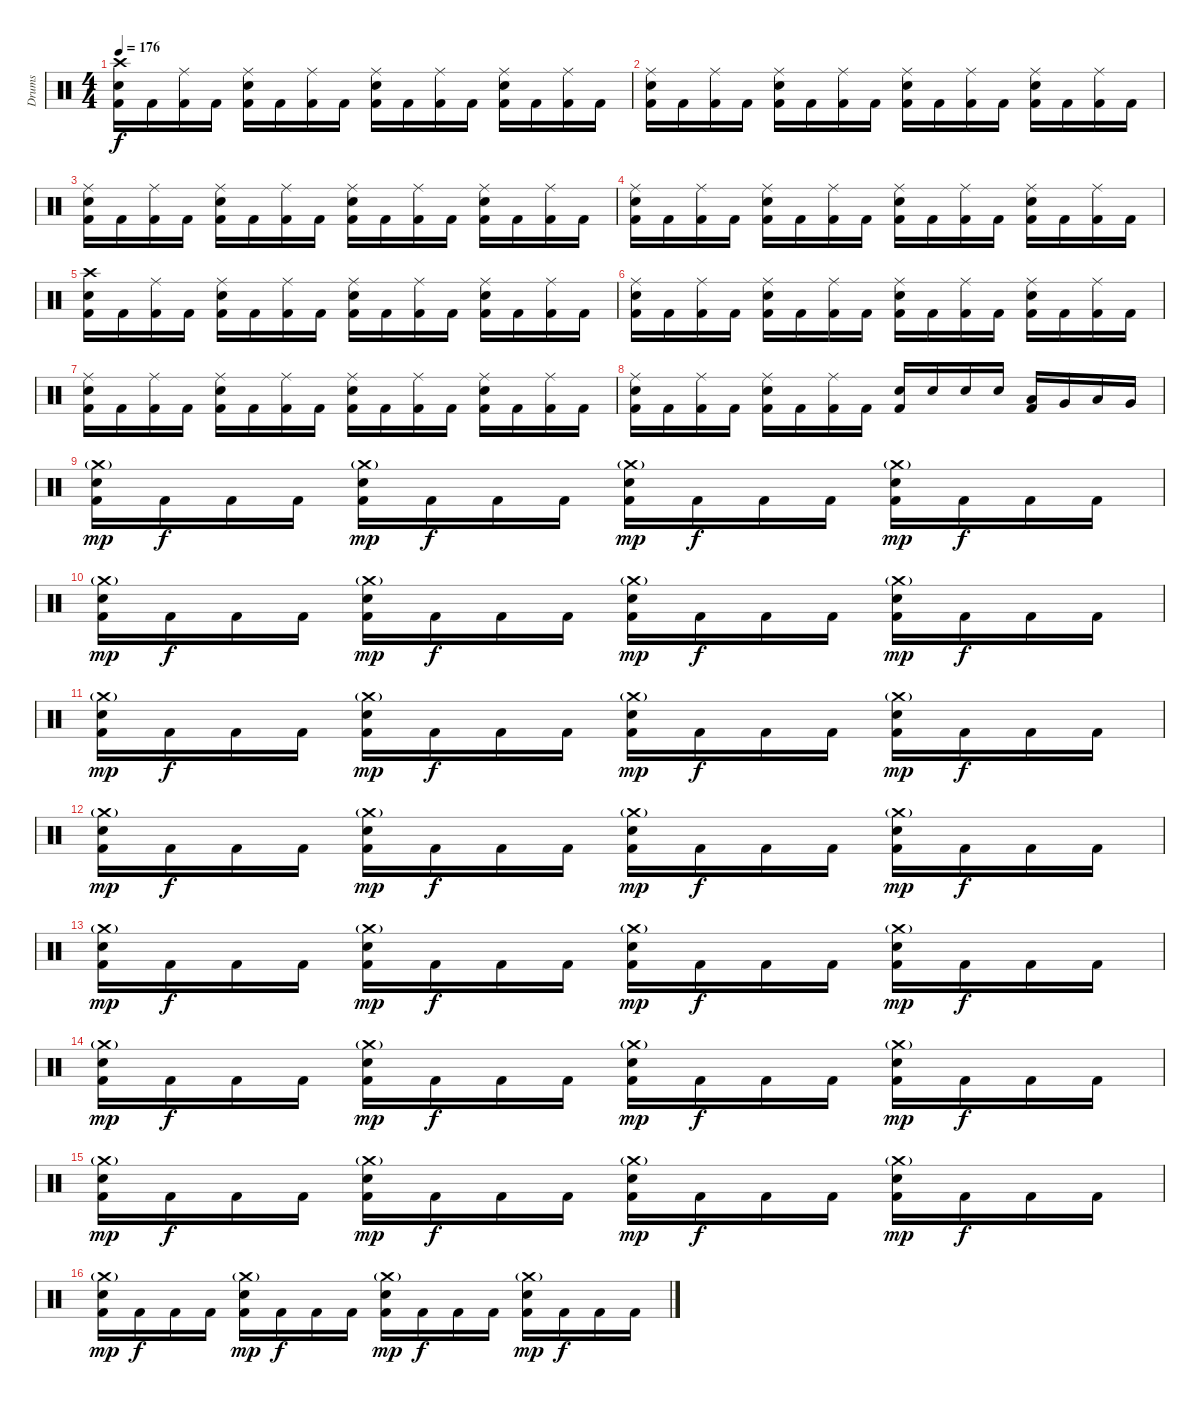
\track ("Drums" "Drums") {instrument percussion}
\staff {score}
\articulation defaults
\ts (4 4)
\tempo 176
\clef neutral
\ks c
("Crash high (hit)" "Electric Snare (hit)" "Kick (hit) 2").16{dy f} "Kick (hit) 2".16 ("Ride (middle)" "Kick (hit) 2").16 "Kick (hit) 2".16 ("Ride (middle)" "Electric Snare (hit)" "Kick (hit) 2").16 "Kick (hit) 2".16 ("Ride (middle)" "Kick (hit) 2").16 "Kick (hit) 2".16 ("Ride (middle)" "Electric Snare (hit)" "Kick (hit) 2").16 "Kick (hit) 2".16 ("Ride (middle)" "Kick (hit) 2").16 "Kick (hit) 2".16 ("Ride (middle)" "Electric Snare (hit)" "Kick (hit) 2").16 "Kick (hit) 2".16 ("Ride (middle)" "Kick (hit) 2").16 "Kick (hit) 2".16 |
("Ride (middle)" "Electric Snare (hit)" "Kick (hit) 2").16 "Kick (hit) 2".16 ("Ride (middle)" "Kick (hit) 2").16 "Kick (hit) 2".16 ("Ride (middle)" "Electric Snare (hit)" "Kick (hit) 2").16 "Kick (hit) 2".16 ("Ride (middle)" "Kick (hit) 2").16 "Kick (hit) 2".16 ("Ride (middle)" "Electric Snare (hit)" "Kick (hit) 2").16 "Kick (hit) 2".16 ("Ride (middle)" "Kick (hit) 2").16 "Kick (hit) 2".16 ("Ride (middle)" "Electric Snare (hit)" "Kick (hit) 2").16 "Kick (hit) 2".16 ("Ride (middle)" "Kick (hit) 2").16 "Kick (hit) 2".16 |
("Ride (middle)" "Electric Snare (hit)" "Kick (hit) 2").16 "Kick (hit) 2".16 ("Ride (middle)" "Kick (hit) 2").16 "Kick (hit) 2".16 ("Ride (middle)" "Electric Snare (hit)" "Kick (hit) 2").16 "Kick (hit) 2".16 ("Ride (middle)" "Kick (hit) 2").16 "Kick (hit) 2".16 ("Ride (middle)" "Electric Snare (hit)" "Kick (hit) 2").16 "Kick (hit) 2".16 ("Ride (middle)" "Kick (hit) 2").16 "Kick (hit) 2".16 ("Ride (middle)" "Electric Snare (hit)" "Kick (hit) 2").16 "Kick (hit) 2".16 ("Ride (middle)" "Kick (hit) 2").16 "Kick (hit) 2".16 |
("Ride (middle)" "Electric Snare (hit)" "Kick (hit) 2").16 "Kick (hit) 2".16 ("Ride (middle)" "Kick (hit) 2").16 "Kick (hit) 2".16 ("Ride (middle)" "Electric Snare (hit)" "Kick (hit) 2").16 "Kick (hit) 2".16 ("Ride (middle)" "Kick (hit) 2").16 "Kick (hit) 2".16 ("Ride (middle)" "Electric Snare (hit)" "Kick (hit) 2").16 "Kick (hit) 2".16 ("Ride (middle)" "Kick (hit) 2").16 "Kick (hit) 2".16 ("Ride (middle)" "Electric Snare (hit)" "Kick (hit) 2").16 "Kick (hit) 2".16 ("Ride (middle)" "Kick (hit) 2").16 "Kick (hit) 2".16 |
("Crash high (hit)" "Electric Snare (hit)" "Kick (hit) 2").16 "Kick (hit) 2".16 ("Ride (middle)" "Kick (hit) 2").16 "Kick (hit) 2".16 ("Ride (middle)" "Electric Snare (hit)" "Kick (hit) 2").16 "Kick (hit) 2".16 ("Ride (middle)" "Kick (hit) 2").16 "Kick (hit) 2".16 ("Ride (middle)" "Electric Snare (hit)" "Kick (hit) 2").16 "Kick (hit) 2".16 ("Ride (middle)" "Kick (hit) 2").16 "Kick (hit) 2".16 ("Ride (middle)" "Electric Snare (hit)" "Kick (hit) 2").16 "Kick (hit) 2".16 ("Ride (middle)" "Kick (hit) 2").16 "Kick (hit) 2".16 |
("Ride (middle)" "Electric Snare (hit)" "Kick (hit) 2").16 "Kick (hit) 2".16 ("Ride (middle)" "Kick (hit) 2").16 "Kick (hit) 2".16 ("Ride (middle)" "Electric Snare (hit)" "Kick (hit) 2").16 "Kick (hit) 2".16 ("Ride (middle)" "Kick (hit) 2").16 "Kick (hit) 2".16 ("Ride (middle)" "Electric Snare (hit)" "Kick (hit) 2").16 "Kick (hit) 2".16 ("Ride (middle)" "Kick (hit) 2").16 "Kick (hit) 2".16 ("Ride (middle)" "Electric Snare (hit)" "Kick (hit) 2").16 "Kick (hit) 2".16 ("Ride (middle)" "Kick (hit) 2").16 "Kick (hit) 2".16 |
("Ride (middle)" "Electric Snare (hit)" "Kick (hit) 2").16 "Kick (hit) 2".16 ("Ride (middle)" "Kick (hit) 2").16 "Kick (hit) 2".16 ("Ride (middle)" "Electric Snare (hit)" "Kick (hit) 2").16 "Kick (hit) 2".16 ("Ride (middle)" "Kick (hit) 2").16 "Kick (hit) 2".16 ("Ride (middle)" "Electric Snare (hit)" "Kick (hit) 2").16 "Kick (hit) 2".16 ("Ride (middle)" "Kick (hit) 2").16 "Kick (hit) 2".16 ("Ride (middle)" "Electric Snare (hit)" "Kick (hit) 2").16 "Kick (hit) 2".16 ("Ride (middle)" "Kick (hit) 2").16 "Kick (hit) 2".16 |
("Ride (middle)" "Electric Snare (hit)" "Kick (hit) 2").16 "Kick (hit) 2".16 ("Ride (middle)" "Kick (hit) 2").16 "Kick (hit) 2".16 ("Ride (middle)" "Electric Snare (hit)" "Kick (hit) 2").16 "Kick (hit) 2".16 ("Ride (middle)" "Kick (hit) 2").16 "Kick (hit) 2".16 ("Electric Snare (hit)" "Kick (hit) 2").16 "Electric Snare (hit)".16 "Electric Snare (hit)".16 "Electric Snare (hit)".16 ("Low Tom (hit)" "Kick (hit) 2").16 "Very Low Tom (hit)".16 "Low Tom (hit)".16 "Very Low Tom (hit)".16 |
("Crash medium (hit)"{g} "Electric Snare (hit)" "Kick (hit) 2").16{dy mp} "Kick (hit) 2".16{dy f} "Kick (hit) 2".16 "Kick (hit) 2".16 ("Crash medium (hit)"{g} "Electric Snare (hit)" "Kick (hit) 2").16{dy mp} "Kick (hit) 2".16{dy f} "Kick (hit) 2".16 "Kick (hit) 2".16 ("Crash medium (hit)"{g} "Electric Snare (hit)" "Kick (hit) 2").16{dy mp} "Kick (hit) 2".16{dy f} "Kick (hit) 2".16 "Kick (hit) 2".16 ("Crash medium (hit)"{g} "Electric Snare (hit)" "Kick (hit) 2").16{dy mp} "Kick (hit) 2".16{dy f} "Kick (hit) 2".16 "Kick (hit) 2".16 |
("Crash medium (hit)"{g} "Electric Snare (hit)" "Kick (hit) 2").16{dy mp} "Kick (hit) 2".16{dy f} "Kick (hit) 2".16 "Kick (hit) 2".16 ("Crash medium (hit)"{g} "Electric Snare (hit)" "Kick (hit) 2").16{dy mp} "Kick (hit) 2".16{dy f} "Kick (hit) 2".16 "Kick (hit) 2".16 ("Crash medium (hit)"{g} "Electric Snare (hit)" "Kick (hit) 2").16{dy mp} "Kick (hit) 2".16{dy f} "Kick (hit) 2".16 "Kick (hit) 2".16 ("Crash medium (hit)"{g} "Electric Snare (hit)" "Kick (hit) 2").16{dy mp} "Kick (hit) 2".16{dy f} "Kick (hit) 2".16 "Kick (hit) 2".16 |
("Crash medium (hit)"{g} "Electric Snare (hit)" "Kick (hit) 2").16{dy mp} "Kick (hit) 2".16{dy f} "Kick (hit) 2".16 "Kick (hit) 2".16 ("Crash medium (hit)"{g} "Electric Snare (hit)" "Kick (hit) 2").16{dy mp} "Kick (hit) 2".16{dy f} "Kick (hit) 2".16 "Kick (hit) 2".16 ("Crash medium (hit)"{g} "Electric Snare (hit)" "Kick (hit) 2").16{dy mp} "Kick (hit) 2".16{dy f} "Kick (hit) 2".16 "Kick (hit) 2".16 ("Crash medium (hit)"{g} "Electric Snare (hit)" "Kick (hit) 2").16{dy mp} "Kick (hit) 2".16{dy f} "Kick (hit) 2".16 "Kick (hit) 2".16 |
("Crash medium (hit)"{g} "Electric Snare (hit)" "Kick (hit) 2").16{dy mp} "Kick (hit) 2".16{dy f} "Kick (hit) 2".16 "Kick (hit) 2".16 ("Crash medium (hit)"{g} "Electric Snare (hit)" "Kick (hit) 2").16{dy mp} "Kick (hit) 2".16{dy f} "Kick (hit) 2".16 "Kick (hit) 2".16 ("Crash medium (hit)"{g} "Electric Snare (hit)" "Kick (hit) 2").16{dy mp} "Kick (hit) 2".16{dy f} "Kick (hit) 2".16 "Kick (hit) 2".16 ("Crash medium (hit)"{g} "Electric Snare (hit)" "Kick (hit) 2").16{dy mp} "Kick (hit) 2".16{dy f} "Kick (hit) 2".16 "Kick (hit) 2".16 |
("Crash medium (hit)"{g} "Electric Snare (hit)" "Kick (hit) 2").16{dy mp} "Kick (hit) 2".16{dy f} "Kick (hit) 2".16 "Kick (hit) 2".16 ("Crash medium (hit)"{g} "Electric Snare (hit)" "Kick (hit) 2").16{dy mp} "Kick (hit) 2".16{dy f} "Kick (hit) 2".16 "Kick (hit) 2".16 ("Crash medium (hit)"{g} "Electric Snare (hit)" "Kick (hit) 2").16{dy mp} "Kick (hit) 2".16{dy f} "Kick (hit) 2".16 "Kick (hit) 2".16 ("Crash medium (hit)"{g} "Electric Snare (hit)" "Kick (hit) 2").16{dy mp} "Kick (hit) 2".16{dy f} "Kick (hit) 2".16 "Kick (hit) 2".16 |
("Crash medium (hit)"{g} "Electric Snare (hit)" "Kick (hit) 2").16{dy mp} "Kick (hit) 2".16{dy f} "Kick (hit) 2".16 "Kick (hit) 2".16 ("Crash medium (hit)"{g} "Electric Snare (hit)" "Kick (hit) 2").16{dy mp} "Kick (hit) 2".16{dy f} "Kick (hit) 2".16 "Kick (hit) 2".16 ("Crash medium (hit)"{g} "Electric Snare (hit)" "Kick (hit) 2").16{dy mp} "Kick (hit) 2".16{dy f} "Kick (hit) 2".16 "Kick (hit) 2".16 ("Crash medium (hit)"{g} "Electric Snare (hit)" "Kick (hit) 2").16{dy mp} "Kick (hit) 2".16{dy f} "Kick (hit) 2".16 "Kick (hit) 2".16 |
("Crash medium (hit)"{g} "Electric Snare (hit)" "Kick (hit) 2").16{dy mp} "Kick (hit) 2".16{dy f} "Kick (hit) 2".16 "Kick (hit) 2".16 ("Crash medium (hit)"{g} "Electric Snare (hit)" "Kick (hit) 2").16{dy mp} "Kick (hit) 2".16{dy f} "Kick (hit) 2".16 "Kick (hit) 2".16 ("Crash medium (hit)"{g} "Electric Snare (hit)" "Kick (hit) 2").16{dy mp} "Kick (hit) 2".16{dy f} "Kick (hit) 2".16 "Kick (hit) 2".16 ("Crash medium (hit)"{g} "Electric Snare (hit)" "Kick (hit) 2").16{dy mp} "Kick (hit) 2".16{dy f} "Kick (hit) 2".16 "Kick (hit) 2".16 |
("Crash medium (hit)"{g} "Electric Snare (hit)" "Kick (hit) 2").16{dy mp} "Kick (hit) 2".16{dy f} "Kick (hit) 2".16 "Kick (hit) 2".16 ("Crash medium (hit)"{g} "Electric Snare (hit)" "Kick (hit) 2").16{dy mp} "Kick (hit) 2".16{dy f} "Kick (hit) 2".16 "Kick (hit) 2".16 ("Crash medium (hit)"{g} "Electric Snare (hit)" "Kick (hit) 2").16{dy mp} "Kick (hit) 2".16{dy f} "Kick (hit) 2".16 "Kick (hit) 2".16 ("Crash medium (hit)"{g} "Electric Snare (hit)" "Kick (hit) 2").16{dy mp} "Kick (hit) 2".16{dy f} "Kick (hit) 2".16 "Kick (hit) 2".16
